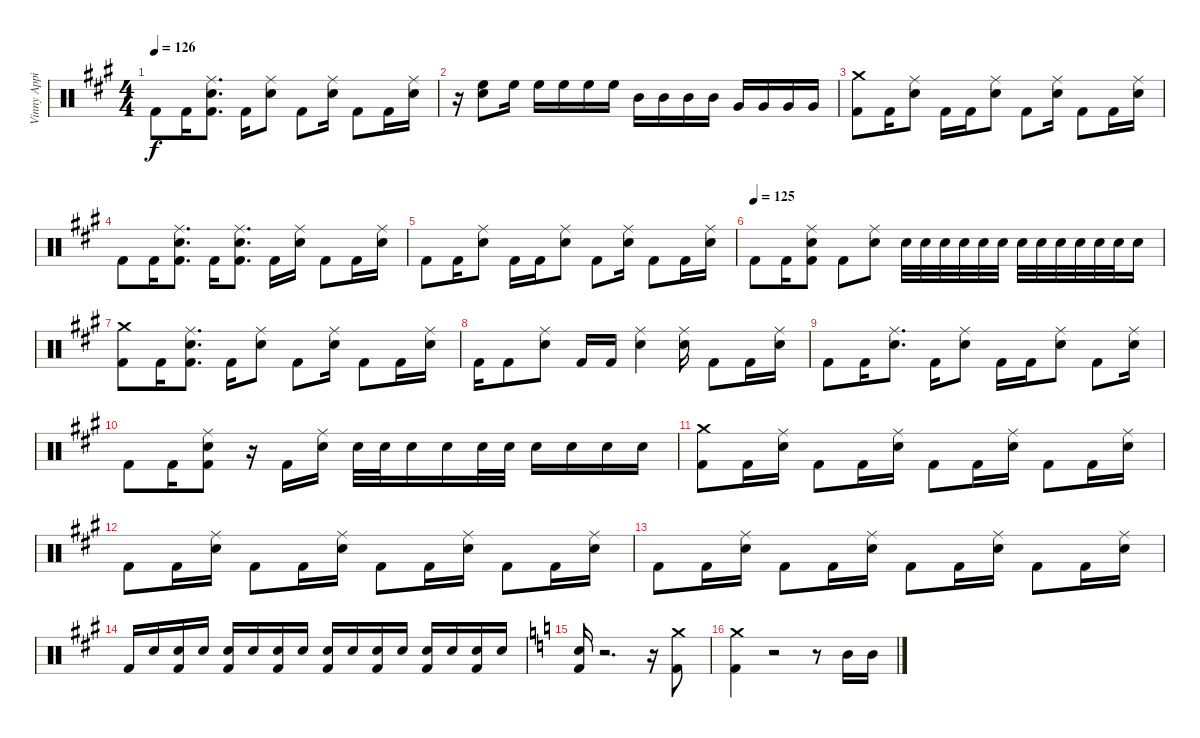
\track ("Vinny Appice" "Vinny Appi") {instrument percussion}
\staff {score}
\articulation defaults
\ts (4 4)
\tempo 126
\clef neutral
\ks f#minor "Kick (hit) 2".8{dy f} "Kick (hit) 2".16
("Kick (hit) 2" "Snare (hit) 2" "Ride (middle)").8{d} "Kick (hit) 2".16 ("Ride (middle)" "Snare (hit) 2").8 "Kick (hit) 2".8 ("Ride (middle)" "Snare (hit) 2").16 "Kick (hit) 2".8 "Kick (hit) 2".16 ("Snare (hit) 2" "Ride (middle)").16 |
r.16 ("High Floor Tom (hit)" "Snare (hit) 2").8 "High Floor Tom (hit)".16 "High Floor Tom (hit)".16 "High Floor Tom (hit)".16 "High Floor Tom (hit)".16 "High Floor Tom (hit)".16 "Mid Tom (hit)".16 "Mid Tom (hit)".16 "Mid Tom (hit)".16 "Mid Tom (hit)".16 "Very Low Tom (hit)".16 "Very Low Tom (hit)".16 "Very Low Tom (hit)".16 "Very Low Tom (hit)".16 |
("Crash medium (hit)" "Kick (hit) 2").8 "Kick (hit) 2".16 ("Ride (middle)" "Snare (hit) 2").8 "Kick (hit) 2".16 "Kick (hit) 2".16 ("Ride (middle)" "Snare (hit) 2").8 "Kick (hit) 2".8 ("Ride (middle)" "Snare (hit) 2").16 "Kick (hit) 2".8 "Kick (hit) 2".16 ("Ride (middle)" "Snare (hit) 2").16 |
"Kick (hit) 2".8 "Kick (hit) 2".16 ("Kick (hit) 2" "Snare (hit) 2" "Ride (middle)").8{d} "Kick (hit) 2".16 ("Snare (hit) 2" "Ride (middle)" "Kick (hit) 2").8{d} "Kick (hit) 2".16 ("Snare (hit) 2" "Ride (middle)").16 "Kick (hit) 2".8 "Kick (hit) 2".16 ("Ride (middle)" "Snare (hit) 2").16 |
"Kick (hit) 2".8 "Kick (hit) 2".16 ("Ride (middle)" "Snare (hit) 2").8 "Kick (hit) 2".16 "Kick (hit) 2".16 ("Ride (middle)" "Snare (hit) 2").8 "Kick (hit) 2".8 ("Ride (middle)" "Snare (hit) 2").16 "Kick (hit) 2".8 "Kick (hit) 2".16 ("Ride (middle)" "Snare (hit) 2").16 |
\tempo (125)
"Kick (hit) 2".8 "Kick (hit) 2".16 ("Ride (middle)" "Snare (hit) 2" "Kick (hit) 2").8 "Kick (hit) 2".8 ("Snare (hit) 2" "Ride (middle)").8 "Snare (hit) 2".32 "Snare (hit) 2".32 "Snare (hit) 2".32 "Snare (hit) 2".32 "Snare (hit) 2".32 "Snare (hit) 2".32 "Snare (hit) 2".32 "Snare (hit) 2".32 "Snare (hit) 2".32 "Snare (hit) 2".32 "Snare (hit) 2".32 "Snare (hit) 2".32 "Snare (hit) 2".16 |
("Crash medium (hit)" "Kick (hit) 2").8 "Kick (hit) 2".16 ("Kick (hit) 2" "Snare (hit) 2" "Ride (middle)").8{d} "Kick (hit) 2".16 ("Ride (middle)" "Snare (hit) 2").8 "Kick (hit) 2".8 ("Ride (middle)" "Snare (hit) 2").16 "Kick (hit) 2".8 "Kick (hit) 2".16 ("Ride (middle)" "Snare (hit) 2").16 |
"Kick (hit) 2".16 "Kick (hit) 2".8 ("Ride (middle)" "Snare (hit) 2").8 "Kick (hit) 2".16 "Kick (hit) 2".16 ("Snare (hit) 2" "Ride (middle)").4 ("Snare (hit) 2" "Ride (middle)").16 "Kick (hit) 2".8 "Kick (hit) 2".16 ("Ride (middle)" "Snare (hit) 2").16 |
"Kick (hit) 2".8 "Kick (hit) 2".16 ("Snare (hit) 2" "Ride (middle)").8{d} "Kick (hit) 2".16 ("Ride (middle)" "Snare (hit) 2").8 "Kick (hit) 2".16 "Kick (hit) 2".16 ("Ride (middle)" "Snare (hit) 2").8 "Kick (hit) 2".8 ("Ride (middle)" "Snare (hit) 2").16 |
"Kick (hit) 2".8 "Kick (hit) 2".16 ("Ride (middle)" "Snare (hit) 2" "Kick (hit) 2").8 r.16 "Kick (hit) 2".16 ("Snare (hit) 2" "Ride (middle)").16 "Snare (hit) 2".32 "Snare (hit) 2".32 "Snare (hit) 2".16 "Snare (hit) 2".16 "Snare (hit) 2".32 "Snare (hit) 2".32 "Snare (hit) 2".16 "Snare (hit) 2".16 "Snare (hit) 2".16 "Snare (hit) 2".16 |
("Crash medium (hit)" "Kick (hit) 2").8 "Kick (hit) 2".16 ("Snare (hit) 2" "Ride (middle)").16 "Kick (hit) 2".8 "Kick (hit) 2".16 ("Snare (hit) 2" "Ride (middle)").16 "Kick (hit) 2".8 "Kick (hit) 2".16 ("Ride (middle)" "Snare (hit) 2").16 "Kick (hit) 2".8 "Kick (hit) 2".16 ("Ride (middle)" "Snare (hit) 2").16 |
"Kick (hit) 2".8 "Kick (hit) 2".16 ("Snare (hit) 2" "Ride (middle)").16 "Kick (hit) 2".8 "Kick (hit) 2".16 ("Snare (hit) 2" "Ride (middle)").16 "Kick (hit) 2".8 "Kick (hit) 2".16 ("Snare (hit) 2" "Ride (middle)").16 "Kick (hit) 2".8 "Kick (hit) 2".16 ("Ride (middle)" "Snare (hit) 2").16 |
"Kick (hit) 2".8 "Kick (hit) 2".16 ("Snare (hit) 2" "Ride (middle)").16 "Kick (hit) 2".8 "Kick (hit) 2".16 ("Ride (middle)" "Snare (hit) 2").16 "Kick (hit) 2".8 "Kick (hit) 2".16 ("Ride (middle)" "Snare (hit) 2").16 "Kick (hit) 2".8 "Kick (hit) 2".16 ("Ride (middle)" "Snare (hit) 2").16 |
"Kick (hit) 2".16 "Snare (hit) 2".16 ("Snare (hit) 2" "Kick (hit) 2").16 "Snare (hit) 2".16 ("Snare (hit) 2" "Kick (hit) 2").16 "Snare (hit) 2".16 ("Snare (hit) 2" "Kick (hit) 2").16 "Snare (hit) 2".16 ("Snare (hit) 2" "Kick (hit) 2").16 "Snare (hit) 2".16 ("Snare (hit) 2" "Kick (hit) 2").16 "Snare (hit) 2".16 ("Snare (hit) 2" "Kick (hit) 2").16 "Snare (hit) 2".16 ("Snare (hit) 2" "Kick (hit) 2").16 "Snare (hit) 2".16 |
\ks aminor
("Kick (hit) 2" "Snare (hit) 2").16 r.2{d} r.16 ("Kick (hit) 2" "Crash medium (hit)").8 |
("Kick (hit) 2" "Crash medium (hit)").4 r.2 r.8 "Mid Tom (hit)".16 "Mid Tom (hit)".16
